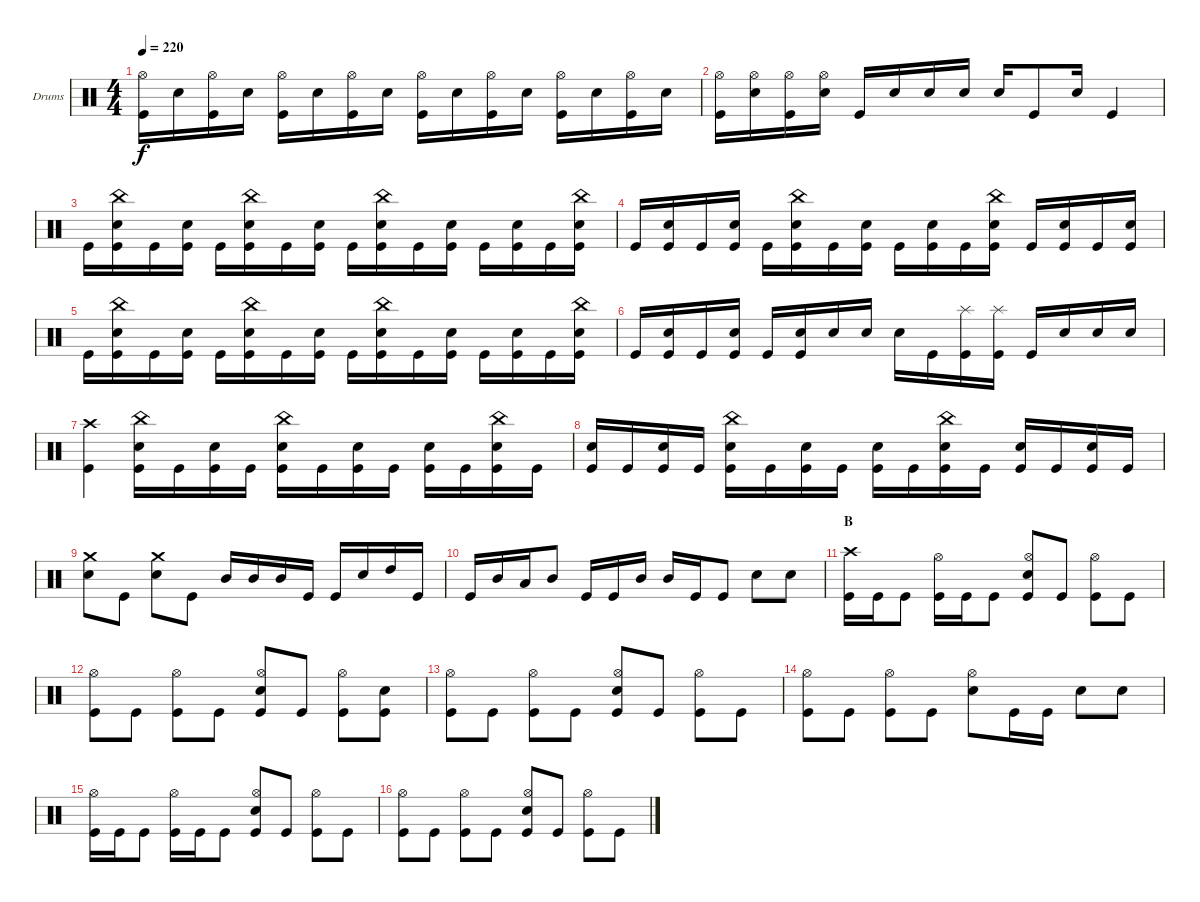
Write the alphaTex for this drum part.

\bracketExtendMode groupsimilarinstruments
\firstSystemTrackNameOrientation horizontal
\otherSystemsTrackNameOrientation horizontal
\track ("Drumkit" "Drums") {instrument percussion}
\staff {score}
\articulation defaults
\ts (4 4)
\tempo 220
\clef neutral
\scale
0.540305
\ks c
("Kick (hit)" "Hi-Hat (open)").16{dy f} "Snare (hit) 2".16 ("Kick (hit)" "Hi-Hat (open)").16 "Snare (hit) 2".16 ("Kick (hit)" "Hi-Hat (open)").16 "Snare (hit) 2".16 ("Kick (hit)" "Hi-Hat (open)").16 "Snare (hit) 2".16 ("Kick (hit)" "Hi-Hat (open)").16 "Snare (hit) 2".16 ("Kick (hit)" "Hi-Hat (open)").16 "Snare (hit) 2".16 ("Kick (hit)" "Hi-Hat (open)").16 "Snare (hit) 2".16 ("Kick (hit)" "Hi-Hat (open)").16 "Snare (hit) 2".16 |
\scale
0.459695 ("Hi-Hat (open)" "Kick (hit)").16 ("Hi-Hat (open)" "Snare (hit) 2").16 ("Hi-Hat (open)" "Kick (hit)").16 ("Hi-Hat (open)" "Snare (hit) 2").16 "Kick (hit)".16 "Snare (hit) 2".16 "Snare (hit) 2".16 "Snare (hit) 2".16 "Snare (hit) 2".16 "Kick (hit)".8 "Snare (hit) 2".16 "Kick (hit)".4 |
\scale
0.5 "Kick (hit)".16 ("China (hit)" "Snare (hit) 2" "Kick (hit)").16 "Kick (hit)".16 ("Snare (hit) 2" "Kick (hit)").16 "Kick (hit)".16 ("China (hit)" "Snare (hit) 2" "Kick (hit)").16 "Kick (hit)".16 ("Snare (hit) 2" "Kick (hit)").16 "Kick (hit)".16 ("China (hit)" "Snare (hit) 2" "Kick (hit)").16 "Kick (hit)".16 ("Snare (hit) 2" "Kick (hit)").16 "Kick (hit)".16 ("Snare (hit) 2" "Kick (hit)").16 "Kick (hit)".16 ("China (hit)" "Snare (hit) 2" "Kick (hit)").16 |
\scale
0.5 "Kick (hit)".16 ("Snare (hit) 2" "Kick (hit)").16 "Kick (hit)".16 ("Snare (hit) 2" "Kick (hit)").16 "Kick (hit)".16 ("China (hit)" "Snare (hit) 2" "Kick (hit)").16 "Kick (hit)".16 ("Snare (hit) 2" "Kick (hit)").16 "Kick (hit)".16 ("Snare (hit) 2" "Kick (hit)").16 "Kick (hit)".16 ("China (hit)" "Snare (hit) 2" "Kick (hit)").16 "Kick (hit)".16 ("Snare (hit) 2" "Kick (hit)").16 "Kick (hit)".16 ("Snare (hit) 2" "Kick (hit)").16 |
\scale
0.5 "Kick (hit)".16 ("China (hit)" "Snare (hit) 2" "Kick (hit)").16 "Kick (hit)".16 ("Snare (hit) 2" "Kick (hit)").16 "Kick (hit)".16 ("China (hit)" "Snare (hit) 2" "Kick (hit)").16 "Kick (hit)".16 ("Snare (hit) 2" "Kick (hit)").16 "Kick (hit)".16 ("China (hit)" "Snare (hit) 2" "Kick (hit)").16 "Kick (hit)".16 ("Snare (hit) 2" "Kick (hit)").16 "Kick (hit)".16 ("Snare (hit) 2" "Kick (hit)").16 "Kick (hit)".16 ("China (hit)" "Snare (hit) 2" "Kick (hit)").16 |
\scale
0.5 "Kick (hit)".16 ("Snare (hit) 2" "Kick (hit)").16 "Kick (hit)".16 ("Snare (hit) 2" "Kick (hit)").16 "Kick (hit)".16 ("Snare (hit) 2" "Kick (hit)").16 "Snare (hit) 2".16 "Snare (hit) 2".16 "Snare (hit) 2".16 "Kick (hit)".16 ("Splash (hit)" "Kick (hit)").16 ("Splash (hit)" "Kick (hit)").16 "Kick (hit)".16 "Snare (hit) 2".16 "Snare (hit) 2".16 "Snare (hit) 2".16 |
\scale
0.470085 ("Crash high (hit)" "Kick (hit)").4 ("China (hit)" "Snare (hit) 2" "Kick (hit)").16 "Kick (hit)".16 ("Snare (hit) 2" "Kick (hit)").16 "Kick (hit)".16 ("China (hit)" "Snare (hit) 2" "Kick (hit)").16 "Kick (hit)".16 ("Snare (hit) 2" "Kick (hit)").16 "Kick (hit)".16 ("Snare (hit) 2" "Kick (hit)").16 "Kick (hit)".16 ("China (hit)" "Snare (hit) 2" "Kick (hit)").16 "Kick (hit)".16 |
\scale
0.529915 ("Snare (hit) 2" "Kick (hit)").16 "Kick (hit)".16 ("Snare (hit) 2" "Kick (hit)").16 "Kick (hit)".16 ("China (hit)" "Snare (hit) 2" "Kick (hit)").16 "Kick (hit)".16 ("Snare (hit) 2" "Kick (hit)").16 "Kick (hit)".16 ("Snare (hit) 2" "Kick (hit)").16 "Kick (hit)".16 ("China (hit)" "Snare (hit) 2" "Kick (hit)").16 "Kick (hit)".16 ("Snare (hit) 2" "Kick (hit)").16 "Kick (hit)".16 ("Snare (hit) 2" "Kick (hit)").16 "Kick (hit)".16 |
\scale
0.5 ("Crash medium (hit)" "Snare (hit) 2").8 "Kick (hit)".8 ("Crash medium (hit)" "Snare (hit) 2").8 "Kick (hit)".8 "Mid Tom (hit)".16 "Mid Tom (hit)".16 "Mid Tom (hit)".16 "Kick (hit)".16 "Kick (hit)".16 "Snare (hit) 2".16 "High Tom (hit)".16 "Kick (hit)".16 |
\scale
0.5 "Kick (hit)".16 "Mid Tom (hit)".16 "Low Tom (hit)".16 "Mid Tom (hit)".8 "Kick (hit)".16 "Kick (hit)".16 "Mid Tom (hit)".16 "Mid Tom (hit)".16 "Kick (hit)".16 "Kick (hit)".8 "Snare (hit) 2".8 "Snare (hit) 2".8 |
\section ("" "B")
\scale
0.548023 ("Crash high (hit)" "Kick (hit)").16 "Kick (hit)".16 "Kick (hit)".8 ("Hi-Hat (open)" "Kick (hit)").16 "Kick (hit)".16 "Kick (hit)".8 ("Hi-Hat (open)" "Snare (hit) 2" "Kick (hit)").8 "Kick (hit)".8 ("Hi-Hat (open)" "Kick (hit)").8 "Kick (hit)".8 |
\scale
0.451977 ("Hi-Hat (open)" "Kick (hit)").8 "Kick (hit)".8 ("Hi-Hat (open)" "Kick (hit)").8 "Kick (hit)".8 ("Hi-Hat (open)" "Snare (hit) 2" "Kick (hit)").8 "Kick (hit)".8 ("Hi-Hat (open)" "Kick (hit)").8 ("Snare (hit) 2" "Kick (hit)").8 |
\scale
0.463768 ("Hi-Hat (open)" "Kick (hit)").8 "Kick (hit)".8 ("Hi-Hat (open)" "Kick (hit)").8 "Kick (hit)".8 ("Hi-Hat (open)" "Snare (hit) 2" "Kick (hit)").8 "Kick (hit)".8 ("Hi-Hat (open)" "Kick (hit)").8 "Kick (hit)".8 |
\scale
0.536232 ("Hi-Hat (open)" "Kick (hit)").8 "Kick (hit)".8 ("Hi-Hat (open)" "Kick (hit)").8 "Kick (hit)".8 ("Hi-Hat (open)" "Snare (hit) 2").8 "Kick (hit)".16 "Kick (hit)".16 "Snare (hit) 2".8 "Snare (hit) 2".8 |
\scale
0.548023 ("Hi-Hat (open)" "Kick (hit)").16 "Kick (hit)".16 "Kick (hit)".8 ("Hi-Hat (open)" "Kick (hit)").16 "Kick (hit)".16 "Kick (hit)".8 ("Hi-Hat (open)" "Snare (hit) 2" "Kick (hit)").8 "Kick (hit)".8 ("Hi-Hat (open)" "Kick (hit)").8 "Kick (hit)".8 |
\scale
0.451977 ("Hi-Hat (open)" "Kick (hit)").8 "Kick (hit)".8 ("Hi-Hat (open)" "Kick (hit)").8 "Kick (hit)".8 ("Hi-Hat (open)" "Snare (hit) 2" "Kick (hit)").8 "Kick (hit)".8 ("Hi-Hat (open)" "Kick (hit)").8 "Kick (hit)".8
